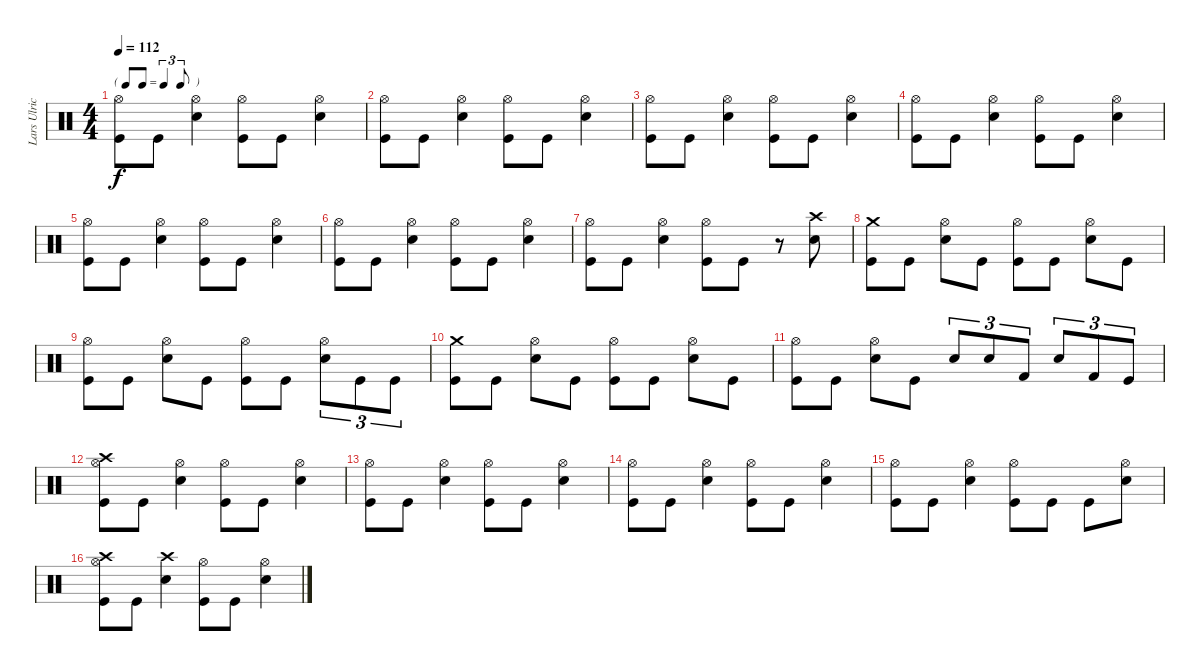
\track ("Lars Ulrich (Drums)" "Lars Ulric") {instrument percussion}
\staff {score}
\articulation defaults
\ts (4 4)
\tf triplet8th
\tempo 112
\clef neutral
\ks c
("Hi-Hat (open)" "Kick (hit)").8{dy f} "Kick (hit)".8 ("Hi-Hat (open)" "Electric Snare (hit)").4 ("Hi-Hat (open)" "Kick (hit)").8 "Kick (hit)".8 ("Hi-Hat (open)" "Electric Snare (hit)").4 |
("Hi-Hat (open)" "Kick (hit)").8 "Kick (hit)".8 ("Hi-Hat (open)" "Electric Snare (hit)").4 ("Hi-Hat (open)" "Kick (hit)").8 "Kick (hit)".8 ("Hi-Hat (open)" "Electric Snare (hit)").4 |
("Hi-Hat (open)" "Kick (hit)").8 "Kick (hit)".8 ("Hi-Hat (open)" "Electric Snare (hit)").4 ("Hi-Hat (open)" "Kick (hit)").8 "Kick (hit)".8 ("Hi-Hat (open)" "Electric Snare (hit)").4 |
("Hi-Hat (open)" "Kick (hit)").8 "Kick (hit)".8 ("Hi-Hat (open)" "Electric Snare (hit)").4 ("Hi-Hat (open)" "Kick (hit)").8 "Kick (hit)".8 ("Hi-Hat (open)" "Electric Snare (hit)").4 |
("Hi-Hat (open)" "Kick (hit)").8 "Kick (hit)".8 ("Hi-Hat (open)" "Electric Snare (hit)").4 ("Hi-Hat (open)" "Kick (hit)").8 "Kick (hit)".8 ("Hi-Hat (open)" "Electric Snare (hit)").4 |
("Hi-Hat (open)" "Kick (hit)").8 "Kick (hit)".8 ("Hi-Hat (open)" "Electric Snare (hit)").4 ("Hi-Hat (open)" "Kick (hit)").8 "Kick (hit)".8 ("Hi-Hat (open)" "Electric Snare (hit)").4 |
("Hi-Hat (open)" "Kick (hit)").8 "Kick (hit)".8 ("Hi-Hat (open)" "Electric Snare (hit)").4 ("Hi-Hat (open)" "Kick (hit)").8 "Kick (hit)".8 r.8 ("Crash high (hit)" "Electric Snare (hit)").8 |
("Crash medium (hit)" "Kick (hit)").8 "Kick (hit)".8 ("Hi-Hat (open)" "Electric Snare (hit)").8 "Kick (hit)".8 ("Hi-Hat (open)" "Kick (hit)").8 "Kick (hit)".8 ("Hi-Hat (open)" "Electric Snare (hit)").8 "Kick (hit)".8 |
("Hi-Hat (open)" "Kick (hit)").8 "Kick (hit)".8 ("Hi-Hat (open)" "Electric Snare (hit)").8 "Kick (hit)".8 ("Hi-Hat (open)" "Kick (hit)").8 "Kick (hit)".8 ("Hi-Hat (open)" "Electric Snare (hit)").8{tu (3 2)} "Kick (hit)".8{tu (3 2)} "Kick (hit)".8{tu (3 2)} |
("Crash medium (hit)" "Kick (hit)").8 "Kick (hit)".8 ("Hi-Hat (open)" "Electric Snare (hit)").8 "Kick (hit)".8 ("Hi-Hat (open)" "Kick (hit)").8 "Kick (hit)".8 ("Hi-Hat (open)" "Electric Snare (hit)").8 "Kick (hit)".8 |
("Hi-Hat (open)" "Kick (hit)").8 "Kick (hit)".8 ("Hi-Hat (open)" "Electric Snare (hit)").8 "Kick (hit)".8 "Electric Snare (hit)".8{tu (3 2)} "Snare (hit) 2".8{tu (3 2)} "Kick (hit) 2".8{tu (3 2)} "Electric Snare (hit)".8{tu (3 2)} "Kick (hit) 2".8{tu (3 2)} "Kick (hit)".8{tu (3 2)} |
("Hi-Hat (open)" "Crash high (hit)" "Kick (hit)").8 "Kick (hit)".8 ("Hi-Hat (open)" "Electric Snare (hit)").4 ("Hi-Hat (open)" "Kick (hit)").8 "Kick (hit)".8 ("Hi-Hat (open)" "Electric Snare (hit)").4 |
("Hi-Hat (open)" "Kick (hit)").8 "Kick (hit)".8 ("Hi-Hat (open)" "Electric Snare (hit)").4 ("Hi-Hat (open)" "Kick (hit)").8 "Kick (hit)".8 ("Hi-Hat (open)" "Electric Snare (hit)").4 |
("Hi-Hat (open)" "Kick (hit)").8 "Kick (hit)".8 ("Hi-Hat (open)" "Electric Snare (hit)").4 ("Hi-Hat (open)" "Kick (hit)").8 "Kick (hit)".8 ("Hi-Hat (open)" "Electric Snare (hit)").4 |
("Hi-Hat (open)" "Kick (hit)").8 "Kick (hit)".8 ("Hi-Hat (open)" "Electric Snare (hit)").4 ("Hi-Hat (open)" "Kick (hit)").8 "Kick (hit)".8 "Kick (hit)".8 ("Hi-Hat (open)" "Electric Snare (hit)").8 |
("Hi-Hat (open)" "Crash high (hit)" "Kick (hit)").8 "Kick (hit)".8 ("Crash high (hit)" "Electric Snare (hit)").4 ("Hi-Hat (open)" "Kick (hit)").8 "Kick (hit)".8 ("Hi-Hat (open)" "Electric Snare (hit)").4
